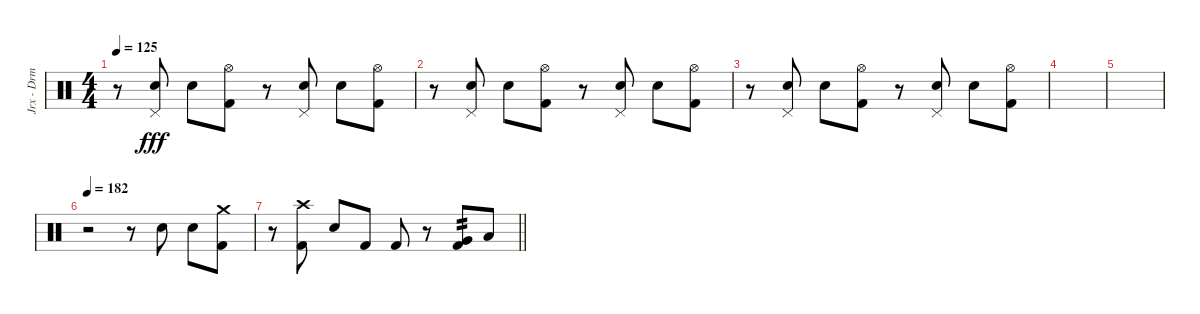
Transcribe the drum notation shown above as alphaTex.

\track ("Jrx - Drm" "Jrx - Drm") {instrument percussion}
\staff {score}
\articulation defaults
\ts (4 4)
\tempo 125
\clef neutral
\ks c
r.8{dy fff} ("Pedal Hi-Hat (hit)" "Snare (hit) 2").8 "Snare (hit) 2".8 ("Hi-Hat (open)" "Kick (hit) 2").8 r.8 ("Pedal Hi-Hat (hit)" "Snare (hit) 2").8 "Snare (hit) 2".8 ("Hi-Hat (open)" "Kick (hit) 2").8 |
r.8 ("Pedal Hi-Hat (hit)" "Snare (hit) 2").8 "Snare (hit) 2".8 ("Hi-Hat (open)" "Kick (hit) 2").8 r.8 ("Pedal Hi-Hat (hit)" "Snare (hit) 2").8 "Snare (hit) 2".8 ("Hi-Hat (open)" "Kick (hit) 2").8 |
r.8 ("Pedal Hi-Hat (hit)" "Snare (hit) 2").8 "Snare (hit) 2".8 ("Hi-Hat (open)" "Kick (hit) 2").8 r.8 ("Pedal Hi-Hat (hit)" "Snare (hit) 2").8 "Snare (hit) 2".8 ("Hi-Hat (open)" "Kick (hit) 2").8 |
|
|
\tempo 182
r.2 r.8 "Snare (hit) 2".8 "Snare (hit) 2".8 ("Kick (hit) 2" "Crash medium (hit)").8 |
\barLineRight lightlight
r.8 ("Kick (hit) 2" "Crash high (hit)").8 "Snare (hit) 2".8 "Kick (hit) 2".8 "Kick (hit) 2".8 r.8 ("Very Low Tom (hit)" "Kick (hit) 2").8{tp 2} "Low Floor Tom (hit)".8
